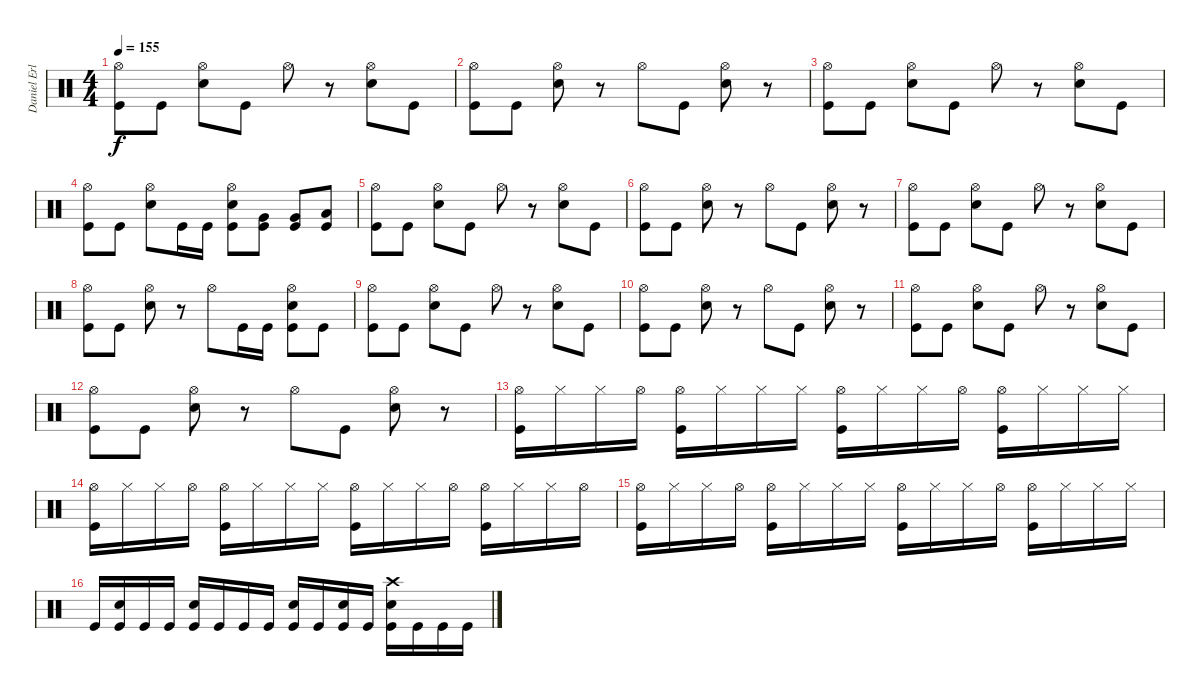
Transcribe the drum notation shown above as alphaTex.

\track ("Daniel Erlandsson" "Daniel Erl") {instrument percussion}
\staff {score}
\articulation defaults
\ts (4 4)
\tempo 155
\clef neutral
\ks c
("Hi-Hat (open)" "Kick (hit)").8{dy f} "Kick (hit)".8 ("Hi-Hat (open)" "Snare (hit) 2").8 "Kick (hit)".8 "Hi-Hat (open)".8 r.8 ("Hi-Hat (open)" "Snare (hit) 2").8 "Kick (hit)".8 |
("Hi-Hat (open)" "Kick (hit)").8 "Kick (hit)".8 ("Hi-Hat (open)" "Snare (hit) 2").8 r.8 "Hi-Hat (open)".8 "Kick (hit)".8 ("Hi-Hat (open)" "Snare (hit) 2").8 r.8 |
("Hi-Hat (open)" "Kick (hit)").8 "Kick (hit)".8 ("Hi-Hat (open)" "Snare (hit) 2").8 "Kick (hit)".8 "Hi-Hat (open)".8 r.8 ("Hi-Hat (open)" "Snare (hit) 2").8 "Kick (hit)".8 |
("Hi-Hat (open)" "Kick (hit)").8 "Kick (hit)".8 ("Hi-Hat (open)" "Snare (hit) 2").8 "Kick (hit)".16 "Kick (hit)".16 ("Hi-Hat (open)" "Snare (hit) 2" "Kick (hit)").8 ("Very Low Tom (hit)" "Kick (hit)").8 ("Very Low Tom (hit)" "Kick (hit)").8 ("Low Floor Tom (hit)" "Kick (hit)").8 |
("Hi-Hat (open)" "Kick (hit)").8 "Kick (hit)".8 ("Hi-Hat (open)" "Snare (hit) 2").8 "Kick (hit)".8 "Hi-Hat (open)".8 r.8 ("Hi-Hat (open)" "Snare (hit) 2").8 "Kick (hit)".8 |
("Hi-Hat (open)" "Kick (hit)").8 "Kick (hit)".8 ("Hi-Hat (open)" "Snare (hit) 2").8 r.8 "Hi-Hat (open)".8 "Kick (hit)".8 ("Hi-Hat (open)" "Snare (hit) 2").8 r.8 |
("Hi-Hat (open)" "Kick (hit)").8 "Kick (hit)".8 ("Hi-Hat (open)" "Snare (hit) 2").8 "Kick (hit)".8 "Hi-Hat (open)".8 r.8 ("Hi-Hat (open)" "Snare (hit) 2").8 "Kick (hit)".8 |
("Hi-Hat (open)" "Kick (hit)").8 "Kick (hit)".8 ("Hi-Hat (open)" "Snare (hit) 2").8 r.8 "Hi-Hat (open)".8 "Kick (hit)".16 "Kick (hit)".16 ("Hi-Hat (open)" "Snare (hit) 2" "Kick (hit)").8 "Kick (hit)".8 |
("Hi-Hat (open)" "Kick (hit)").8 "Kick (hit)".8 ("Hi-Hat (open)" "Snare (hit) 2").8 "Kick (hit)".8 "Hi-Hat (open)".8 r.8 ("Hi-Hat (open)" "Snare (hit) 2").8 "Kick (hit)".8 |
("Hi-Hat (open)" "Kick (hit)").8 "Kick (hit)".8 ("Hi-Hat (open)" "Snare (hit) 2").8 r.8 "Hi-Hat (open)".8 "Kick (hit)".8 ("Hi-Hat (open)" "Snare (hit) 2").8 r.8 |
("Hi-Hat (open)" "Kick (hit)").8 "Kick (hit)".8 ("Hi-Hat (open)" "Snare (hit) 2").8 "Kick (hit)".8 "Hi-Hat (open)".8 r.8 ("Hi-Hat (open)" "Snare (hit) 2").8 "Kick (hit)".8 |
("Hi-Hat (open)" "Kick (hit)").8 "Kick (hit)".8 ("Hi-Hat (open)" "Snare (hit) 2").8 r.8 "Hi-Hat (open)".8 "Kick (hit)".8 ("Hi-Hat (open)" "Snare (hit) 2").8 r.8 |
("Hi-Hat (open)" "Kick (hit)").16 "Hi-Hat (closed)".16 "Hi-Hat (closed)".16 "Hi-Hat (open)".16 ("Hi-Hat (open)" "Kick (hit)").16 "Hi-Hat (closed)".16 "Hi-Hat (closed)".16 "Hi-Hat (closed)".16 ("Hi-Hat (open)" "Kick (hit)").16 "Hi-Hat (closed)".16 "Hi-Hat (closed)".16 "Hi-Hat (open)".16 ("Hi-Hat (open)" "Kick (hit)").16 "Hi-Hat (closed)".16 "Hi-Hat (closed)".16 "Hi-Hat (closed)".16 |
("Hi-Hat (open)" "Kick (hit)").16 "Hi-Hat (closed)".16 "Hi-Hat (closed)".16 "Hi-Hat (open)".16 ("Hi-Hat (open)" "Kick (hit)").16 "Hi-Hat (closed)".16 "Hi-Hat (closed)".16 "Hi-Hat (closed)".16 ("Hi-Hat (open)" "Kick (hit)").16 "Hi-Hat (closed)".16 "Hi-Hat (closed)".16 "Hi-Hat (open)".16 ("Hi-Hat (open)" "Kick (hit)").16 "Hi-Hat (closed)".16 "Hi-Hat (closed)".16 "Hi-Hat (open)".16 |
("Hi-Hat (open)" "Kick (hit)").16 "Hi-Hat (closed)".16 "Hi-Hat (closed)".16 "Hi-Hat (open)".16 ("Hi-Hat (open)" "Kick (hit)").16 "Hi-Hat (closed)".16 "Hi-Hat (closed)".16 "Hi-Hat (closed)".16 ("Hi-Hat (open)" "Kick (hit)").16 "Hi-Hat (closed)".16 "Hi-Hat (closed)".16 "Hi-Hat (open)".16 ("Hi-Hat (open)" "Kick (hit)").16 "Hi-Hat (closed)".16 "Hi-Hat (closed)".16 "Hi-Hat (closed)".16 |
"Kick (hit)".16 ("Snare (hit) 2" "Kick (hit)").16 "Kick (hit)".16 "Kick (hit)".16 ("Snare (hit) 2" "Kick (hit)").16 "Kick (hit)".16 "Kick (hit)".16 "Kick (hit)".16 ("Snare (hit) 2" "Kick (hit)").16 "Kick (hit)".16 ("Snare (hit) 2" "Kick (hit)").16 "Kick (hit)".16 ("Crash high (hit)" "Snare (hit) 2" "Kick (hit)").16 "Kick (hit)".16 "Kick (hit)".16 "Kick (hit)".16
